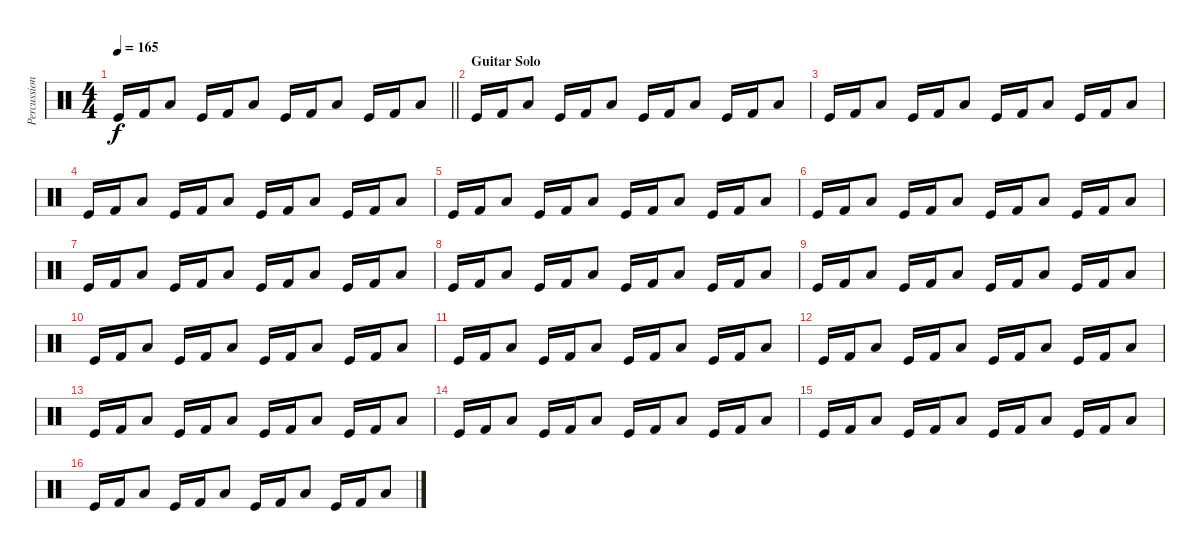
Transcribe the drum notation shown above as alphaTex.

\track ("Percussion" "Percussion") {instrument percussion}
\staff {score}
\articulation defaults
\ts (4 4)
\tempo 165
\clef neutral
\barLineRight lightlight
\ks c "Kick (hit)".16{dy f} "Kick (hit) 2".16 "Low Tom (hit)".8 "Kick (hit)".16 "Kick (hit) 2".16 "Low Tom (hit)".8 "Kick (hit)".16 "Kick (hit) 2".16 "Low Tom (hit)".8 "Kick (hit)".16 "Kick (hit) 2".16 "Low Tom (hit)".8
|
\section ("" "Guitar Solo")
"Kick (hit)".16 "Kick (hit) 2".16 "Low Tom (hit)".8 "Kick (hit)".16 "Kick (hit) 2".16 "Low Tom (hit)".8 "Kick (hit)".16 "Kick (hit) 2".16 "Low Tom (hit)".8 "Kick (hit)".16 "Kick (hit) 2".16 "Low Tom (hit)".8 |
"Kick (hit)".16 "Kick (hit) 2".16 "Low Tom (hit)".8 "Kick (hit)".16 "Kick (hit) 2".16 "Low Tom (hit)".8 "Kick (hit)".16 "Kick (hit) 2".16 "Low Tom (hit)".8 "Kick (hit)".16 "Kick (hit) 2".16 "Low Tom (hit)".8 |
"Kick (hit)".16 "Kick (hit) 2".16 "Low Tom (hit)".8 "Kick (hit)".16 "Kick (hit) 2".16 "Low Tom (hit)".8 "Kick (hit)".16 "Kick (hit) 2".16 "Low Tom (hit)".8 "Kick (hit)".16 "Kick (hit) 2".16 "Low Tom (hit)".8 |
"Kick (hit)".16 "Kick (hit) 2".16 "Low Tom (hit)".8 "Kick (hit)".16 "Kick (hit) 2".16 "Low Tom (hit)".8 "Kick (hit)".16 "Kick (hit) 2".16 "Low Tom (hit)".8 "Kick (hit)".16 "Kick (hit) 2".16 "Low Tom (hit)".8 |
"Kick (hit)".16 "Kick (hit) 2".16 "Low Tom (hit)".8 "Kick (hit)".16 "Kick (hit) 2".16 "Low Tom (hit)".8 "Kick (hit)".16 "Kick (hit) 2".16 "Low Tom (hit)".8 "Kick (hit)".16 "Kick (hit) 2".16 "Low Tom (hit)".8 |
"Kick (hit)".16 "Kick (hit) 2".16 "Low Tom (hit)".8 "Kick (hit)".16 "Kick (hit) 2".16 "Low Tom (hit)".8 "Kick (hit)".16 "Kick (hit) 2".16 "Low Tom (hit)".8 "Kick (hit)".16 "Kick (hit) 2".16 "Low Tom (hit)".8 |
"Kick (hit)".16 "Kick (hit) 2".16 "Low Tom (hit)".8 "Kick (hit)".16 "Kick (hit) 2".16 "Low Tom (hit)".8 "Kick (hit)".16 "Kick (hit) 2".16 "Low Tom (hit)".8 "Kick (hit)".16 "Kick (hit) 2".16 "Low Tom (hit)".8 |
"Kick (hit)".16 "Kick (hit) 2".16 "Low Tom (hit)".8 "Kick (hit)".16 "Kick (hit) 2".16 "Low Tom (hit)".8 "Kick (hit)".16 "Kick (hit) 2".16 "Low Tom (hit)".8 "Kick (hit)".16 "Kick (hit) 2".16 "Low Tom (hit)".8 |
"Kick (hit)".16 "Kick (hit) 2".16 "Low Tom (hit)".8 "Kick (hit)".16 "Kick (hit) 2".16 "Low Tom (hit)".8 "Kick (hit)".16 "Kick (hit) 2".16 "Low Tom (hit)".8 "Kick (hit)".16 "Kick (hit) 2".16 "Low Tom (hit)".8 |
"Kick (hit)".16 "Kick (hit) 2".16 "Low Tom (hit)".8 "Kick (hit)".16 "Kick (hit) 2".16 "Low Tom (hit)".8 "Kick (hit)".16 "Kick (hit) 2".16 "Low Tom (hit)".8 "Kick (hit)".16 "Kick (hit) 2".16 "Low Tom (hit)".8 |
"Kick (hit)".16 "Kick (hit) 2".16 "Low Tom (hit)".8 "Kick (hit)".16 "Kick (hit) 2".16 "Low Tom (hit)".8 "Kick (hit)".16 "Kick (hit) 2".16 "Low Tom (hit)".8 "Kick (hit)".16 "Kick (hit) 2".16 "Low Tom (hit)".8 |
"Kick (hit)".16 "Kick (hit) 2".16 "Low Tom (hit)".8 "Kick (hit)".16 "Kick (hit) 2".16 "Low Tom (hit)".8 "Kick (hit)".16 "Kick (hit) 2".16 "Low Tom (hit)".8 "Kick (hit)".16 "Kick (hit) 2".16 "Low Tom (hit)".8 |
"Kick (hit)".16 "Kick (hit) 2".16 "Low Tom (hit)".8 "Kick (hit)".16 "Kick (hit) 2".16 "Low Tom (hit)".8 "Kick (hit)".16 "Kick (hit) 2".16 "Low Tom (hit)".8 "Kick (hit)".16 "Kick (hit) 2".16 "Low Tom (hit)".8 |
"Kick (hit)".16 "Kick (hit) 2".16 "Low Tom (hit)".8 "Kick (hit)".16 "Kick (hit) 2".16 "Low Tom (hit)".8 "Kick (hit)".16 "Kick (hit) 2".16 "Low Tom (hit)".8 "Kick (hit)".16 "Kick (hit) 2".16 "Low Tom (hit)".8 |
"Kick (hit)".16 "Kick (hit) 2".16 "Low Tom (hit)".8 "Kick (hit)".16 "Kick (hit) 2".16 "Low Tom (hit)".8 "Kick (hit)".16 "Kick (hit) 2".16 "Low Tom (hit)".8 "Kick (hit)".16 "Kick (hit) 2".16 "Low Tom (hit)".8
